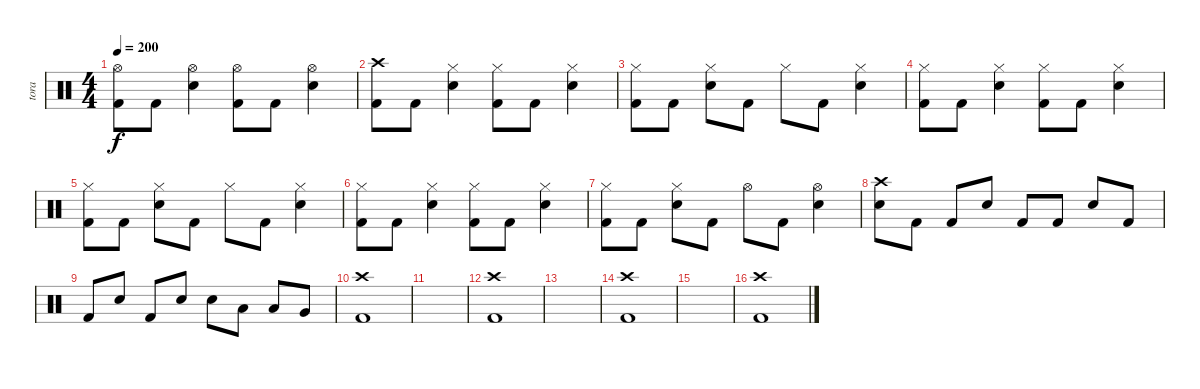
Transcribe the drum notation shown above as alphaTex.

\track ("tora" "tora") {instrument percussion}
\staff {score}
\articulation defaults
\ts (4 4)
\tempo 200
\clef neutral
\ks c
("Hi-Hat (open)" "Kick (hit) 2").8{dy f} "Kick (hit) 2".8 ("Hi-Hat (open)" "Snare (hit) 2").4 ("Hi-Hat (open)" "Kick (hit) 2").8 "Kick (hit) 2".8 ("Hi-Hat (open)" "Snare (hit) 2").4 |
("Crash high (hit)" "Kick (hit) 2").8 "Kick (hit) 2".8 ("Hi-Hat (closed)" "Snare (hit) 2").4 ("Hi-Hat (closed)" "Kick (hit) 2").8 "Kick (hit) 2".8 ("Hi-Hat (closed)" "Snare (hit) 2").4 |
("Hi-Hat (closed)" "Kick (hit) 2").8 "Kick (hit) 2".8 ("Hi-Hat (closed)" "Snare (hit) 2").8 "Kick (hit) 2".8 "Hi-Hat (closed)".8 "Kick (hit) 2".8 ("Hi-Hat (closed)" "Snare (hit) 2").4 |
("Hi-Hat (closed)" "Kick (hit) 2").8 "Kick (hit) 2".8 ("Hi-Hat (closed)" "Snare (hit) 2").4 ("Hi-Hat (closed)" "Kick (hit) 2").8 "Kick (hit) 2".8 ("Hi-Hat (closed)" "Snare (hit) 2").4 |
("Hi-Hat (closed)" "Kick (hit) 2").8 "Kick (hit) 2".8 ("Hi-Hat (closed)" "Snare (hit) 2").8 "Kick (hit) 2".8 "Hi-Hat (closed)".8 "Kick (hit) 2".8 ("Hi-Hat (closed)" "Snare (hit) 2").4 |
("Hi-Hat (closed)" "Kick (hit) 2").8 "Kick (hit) 2".8 ("Hi-Hat (closed)" "Snare (hit) 2").4 ("Hi-Hat (closed)" "Kick (hit) 2").8 "Kick (hit) 2".8 ("Hi-Hat (closed)" "Snare (hit) 2").4 |
("Hi-Hat (closed)" "Kick (hit) 2").8 "Kick (hit) 2".8 ("Hi-Hat (closed)" "Snare (hit) 2").8 "Kick (hit) 2".8 "Hi-Hat (open)".8 "Kick (hit) 2".8 ("Hi-Hat (open)" "Snare (hit) 2").4 |
("Crash high (hit)" "Snare (hit) 2").8 "Kick (hit) 2".8 "Kick (hit) 2".8 "Snare (hit) 2".8 "Kick (hit) 2".8 "Kick (hit) 2".8 "Snare (hit) 2".8 "Kick (hit) 2".8 |
"Kick (hit) 2".8 "Snare (hit) 2".8 "Kick (hit) 2".8 "Snare (hit) 2".8 "Snare (hit) 2".8 "Low Tom (hit)".8 "Low Tom (hit)".8 "Very Low Tom (hit)".8 |
("Crash high (hit)" "Kick (hit) 2").1 |
|
("Crash high (hit)" "Kick (hit) 2").1 |
|
("Crash high (hit)" "Kick (hit) 2").1 |
|
("Crash high (hit)" "Kick (hit) 2").1
